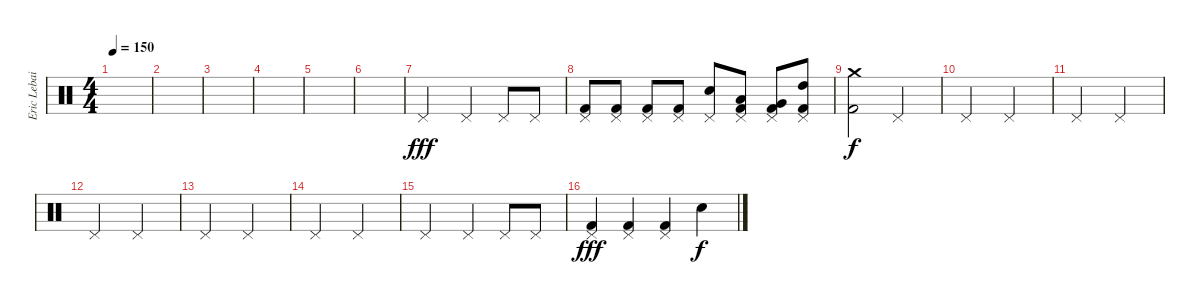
\track ("Eric Lebailly - Drums" "Eric Lebai") {instrument percussion}
\staff {score}
\articulation defaults
\ts (4 4)
\tempo 150
\clef neutral
\ks c
|
|
|
|
|
|
"Pedal Hi-Hat (hit)".2{dy fff volume 16 balance 13} "Pedal Hi-Hat (hit)".4 "Pedal Hi-Hat (hit)".8 "Pedal Hi-Hat (hit)".8 |
("Pedal Hi-Hat (hit)" "Kick (hit) 2").8 ("Pedal Hi-Hat (hit)" "Kick (hit) 2").8 ("Pedal Hi-Hat (hit)" "Kick (hit) 2").8 ("Pedal Hi-Hat (hit)" "Kick (hit) 2").8 ("Pedal Hi-Hat (hit)" "Electric Snare (hit)").8 ("Pedal Hi-Hat (hit)" "Low Floor Tom (hit)" "Kick (hit) 2").8 ("Pedal Hi-Hat (hit)" "Very Low Tom (hit)" "Kick (hit) 2").8 ("Pedal Hi-Hat (hit)" "High Tom (hit)" "Kick (hit) 2").8 |
("Crash medium (hit)" "Kick (hit) 2").2{dy f} "Pedal Hi-Hat (hit)".2{volume 13} |
"Pedal Hi-Hat (hit)".2 "Pedal Hi-Hat (hit)".2 |
"Pedal Hi-Hat (hit)".2 "Pedal Hi-Hat (hit)".2 |
"Pedal Hi-Hat (hit)".2 "Pedal Hi-Hat (hit)".2 |
"Pedal Hi-Hat (hit)".2 "Pedal Hi-Hat (hit)".2 |
"Pedal Hi-Hat (hit)".2 "Pedal Hi-Hat (hit)".2 |
"Pedal Hi-Hat (hit)".2 "Pedal Hi-Hat (hit)".4 "Pedal Hi-Hat (hit)".8 "Pedal Hi-Hat (hit)".8 |
("Pedal Hi-Hat (hit)" "Kick (hit) 2").4{dy fff} ("Pedal Hi-Hat (hit)" "Kick (hit) 2").4 ("Pedal Hi-Hat (hit)" "Kick (hit) 2").4 "Electric Snare (hit)".4{dy f}
